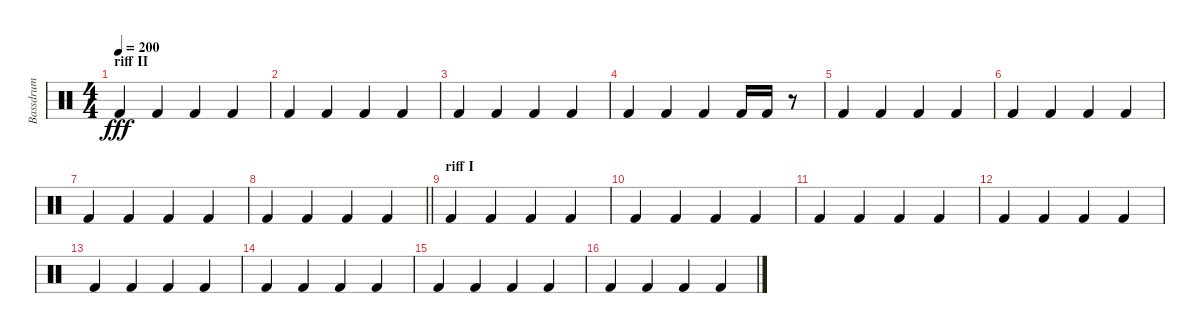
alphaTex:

\track ("Bassdrum" "Bassdrum") {instrument percussion}
\staff {score}
\articulation defaults
\ts (4 4)
\section ("" "riff II")
\tempo 200
\clef neutral
\ks c "Kick (hit) 2".4{dy fff} "Kick (hit) 2".4 "Kick (hit) 2".4 "Kick (hit) 2".4
|
"Kick (hit) 2".4 "Kick (hit) 2".4 "Kick (hit) 2".4 "Kick (hit) 2".4 |
"Kick (hit) 2".4 "Kick (hit) 2".4 "Kick (hit) 2".4 "Kick (hit) 2".4 |
"Kick (hit) 2".4 "Kick (hit) 2".4 "Kick (hit) 2".4 "Kick (hit) 2".16 "Kick (hit) 2".16 r.8 |
"Kick (hit) 2".4 "Kick (hit) 2".4 "Kick (hit) 2".4 "Kick (hit) 2".4 |
"Kick (hit) 2".4 "Kick (hit) 2".4 "Kick (hit) 2".4 "Kick (hit) 2".4 |
"Kick (hit) 2".4 "Kick (hit) 2".4 "Kick (hit) 2".4 "Kick (hit) 2".4 |
\barLineRight lightlight "Kick (hit) 2".4 "Kick (hit) 2".4 "Kick (hit) 2".4 "Kick (hit) 2".4
|
\section ("" "riff I")
"Kick (hit) 2".4 "Kick (hit) 2".4 "Kick (hit) 2".4 "Kick (hit) 2".4 |
"Kick (hit) 2".4 "Kick (hit) 2".4 "Kick (hit) 2".4 "Kick (hit) 2".4 |
"Kick (hit) 2".4 "Kick (hit) 2".4 "Kick (hit) 2".4 "Kick (hit) 2".4 |
"Kick (hit) 2".4 "Kick (hit) 2".4 "Kick (hit) 2".4 "Kick (hit) 2".4 |
"Kick (hit) 2".4 "Kick (hit) 2".4 "Kick (hit) 2".4 "Kick (hit) 2".4 |
"Kick (hit) 2".4 "Kick (hit) 2".4 "Kick (hit) 2".4 "Kick (hit) 2".4 |
"Kick (hit) 2".4 "Kick (hit) 2".4 "Kick (hit) 2".4 "Kick (hit) 2".4 |
"Kick (hit) 2".4 "Kick (hit) 2".4 "Kick (hit) 2".4 "Kick (hit) 2".4
